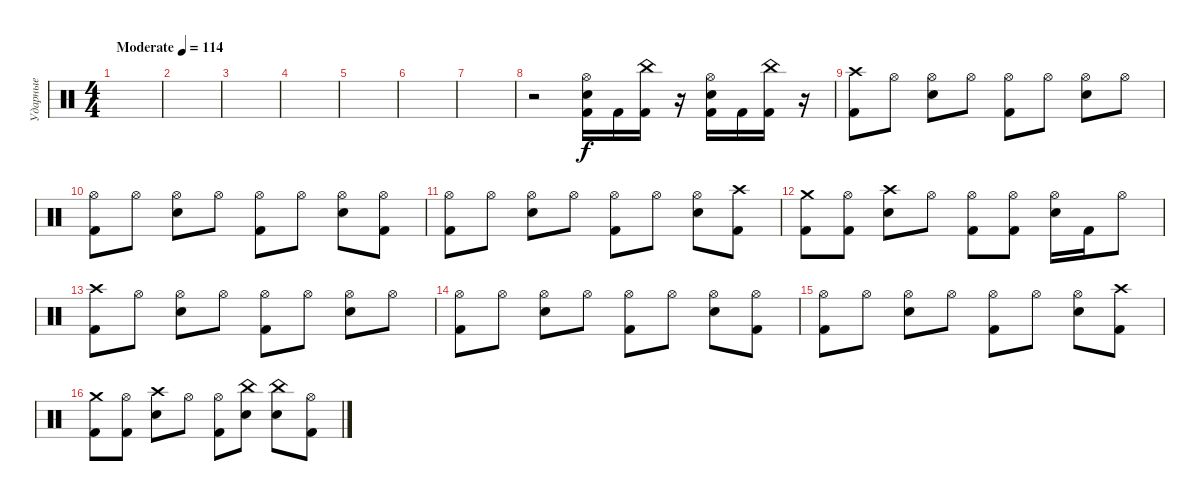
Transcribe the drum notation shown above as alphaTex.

\track ("Ударные" "Ударные") {instrument percussion}
\staff {score}
\articulation defaults
\ts (4 4)
\tempo (114 "Moderate")
\clef neutral
\ks c
|
|
|
|
|
|
|
r.2 ("Hi-Hat (open)" "Electric Snare (hit)" "Kick (hit) 2").16 "Kick (hit) 2".16 ("China (hit)" "Kick (hit) 2").16 r.16 ("Hi-Hat (open)" "Electric Snare (hit)" "Kick (hit) 2").16 "Kick (hit) 2".16 ("China (hit)" "Kick (hit) 2").16 r.16 |
("Crash high (hit)" "Kick (hit) 2").8 "Hi-Hat (open)".8 ("Hi-Hat (open)" "Electric Snare (hit)").8 "Hi-Hat (open)".8 ("Hi-Hat (open)" "Kick (hit) 2").8 "Hi-Hat (open)".8 ("Hi-Hat (open)" "Electric Snare (hit)").8 "Hi-Hat (open)".8 |
("Hi-Hat (open)" "Kick (hit) 2").8 "Hi-Hat (open)".8 ("Hi-Hat (open)" "Electric Snare (hit)").8 "Hi-Hat (open)".8 ("Hi-Hat (open)" "Kick (hit) 2").8 "Hi-Hat (open)".8 ("Hi-Hat (open)" "Electric Snare (hit)").8 ("Hi-Hat (open)" "Kick (hit) 2").8 |
("Hi-Hat (open)" "Kick (hit) 2").8 "Hi-Hat (open)".8 ("Hi-Hat (open)" "Electric Snare (hit)").8 "Hi-Hat (open)".8 ("Hi-Hat (open)" "Kick (hit) 2").8 "Hi-Hat (open)".8 ("Hi-Hat (open)" "Electric Snare (hit)").8 ("Crash high (hit)" "Kick (hit) 2").8 |
("Crash medium (hit)" "Kick (hit) 2").8 ("Hi-Hat (open)" "Kick (hit) 2").8 ("Crash high (hit)" "Electric Snare (hit)").8 "Hi-Hat (open)".8 ("Hi-Hat (open)" "Kick (hit) 2").8 ("Hi-Hat (open)" "Kick (hit) 2").8 ("Hi-Hat (open)" "Electric Snare (hit)").16 "Kick (hit) 2".16 "Hi-Hat (open)".8 |
("Crash high (hit)" "Kick (hit) 2").8 "Hi-Hat (open)".8 ("Hi-Hat (open)" "Electric Snare (hit)").8 "Hi-Hat (open)".8 ("Hi-Hat (open)" "Kick (hit) 2").8 "Hi-Hat (open)".8 ("Hi-Hat (open)" "Electric Snare (hit)").8 "Hi-Hat (open)".8 |
("Hi-Hat (open)" "Kick (hit) 2").8 "Hi-Hat (open)".8 ("Hi-Hat (open)" "Electric Snare (hit)").8 "Hi-Hat (open)".8 ("Hi-Hat (open)" "Kick (hit) 2").8 "Hi-Hat (open)".8 ("Hi-Hat (open)" "Electric Snare (hit)").8 ("Hi-Hat (open)" "Kick (hit) 2").8 |
("Hi-Hat (open)" "Kick (hit) 2").8 "Hi-Hat (open)".8 ("Hi-Hat (open)" "Electric Snare (hit)").8 "Hi-Hat (open)".8 ("Hi-Hat (open)" "Kick (hit) 2").8 "Hi-Hat (open)".8 ("Hi-Hat (open)" "Electric Snare (hit)").8 ("Crash high (hit)" "Kick (hit) 2").8 |
("Crash medium (hit)" "Kick (hit) 2").8 ("Hi-Hat (open)" "Kick (hit) 2").8 ("Crash high (hit)" "Electric Snare (hit)").8 "Hi-Hat (open)".8 ("Hi-Hat (open)" "Kick (hit) 2").8 ("China (hit)" "Electric Snare (hit)").8 ("China (hit)" "Electric Snare (hit)").8 ("Hi-Hat (open)" "Kick (hit) 2").8
